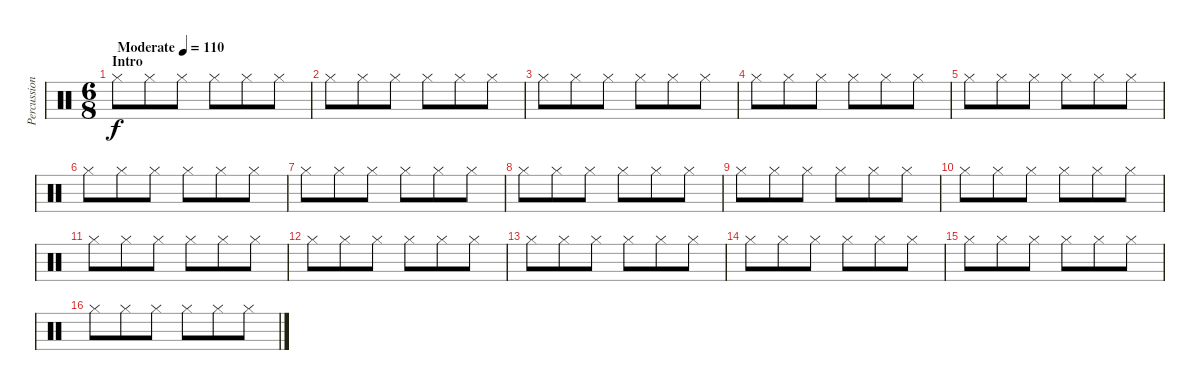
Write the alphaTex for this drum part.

\track ("Percussion" "Percussion") {instrument percussion}
\staff {score}
\articulation defaults
\ts (6 8)
\section ("" "Intro")
\tempo (110 "Moderate")
\clef neutral
\ks c "Hi-Hat (closed)".8{dy f} "Hi-Hat (closed)".8 "Hi-Hat (closed)".8 "Hi-Hat (closed)".8 "Hi-Hat (closed)".8 "Hi-Hat (closed)".8
|
"Hi-Hat (closed)".8 "Hi-Hat (closed)".8 "Hi-Hat (closed)".8 "Hi-Hat (closed)".8 "Hi-Hat (closed)".8 "Hi-Hat (closed)".8 |
"Hi-Hat (closed)".8 "Hi-Hat (closed)".8 "Hi-Hat (closed)".8 "Hi-Hat (closed)".8 "Hi-Hat (closed)".8 "Hi-Hat (closed)".8 |
"Hi-Hat (closed)".8 "Hi-Hat (closed)".8 "Hi-Hat (closed)".8 "Hi-Hat (closed)".8 "Hi-Hat (closed)".8 "Hi-Hat (closed)".8 |
"Hi-Hat (closed)".8 "Hi-Hat (closed)".8 "Hi-Hat (closed)".8 "Hi-Hat (closed)".8 "Hi-Hat (closed)".8 "Hi-Hat (closed)".8 |
"Hi-Hat (closed)".8 "Hi-Hat (closed)".8 "Hi-Hat (closed)".8 "Hi-Hat (closed)".8 "Hi-Hat (closed)".8 "Hi-Hat (closed)".8 |
"Hi-Hat (closed)".8 "Hi-Hat (closed)".8 "Hi-Hat (closed)".8 "Hi-Hat (closed)".8 "Hi-Hat (closed)".8 "Hi-Hat (closed)".8 |
"Hi-Hat (closed)".8 "Hi-Hat (closed)".8 "Hi-Hat (closed)".8 "Hi-Hat (closed)".8 "Hi-Hat (closed)".8 "Hi-Hat (closed)".8 |
"Hi-Hat (closed)".8 "Hi-Hat (closed)".8 "Hi-Hat (closed)".8 "Hi-Hat (closed)".8 "Hi-Hat (closed)".8 "Hi-Hat (closed)".8 |
"Hi-Hat (closed)".8 "Hi-Hat (closed)".8 "Hi-Hat (closed)".8 "Hi-Hat (closed)".8 "Hi-Hat (closed)".8 "Hi-Hat (closed)".8 |
"Hi-Hat (closed)".8 "Hi-Hat (closed)".8 "Hi-Hat (closed)".8 "Hi-Hat (closed)".8 "Hi-Hat (closed)".8 "Hi-Hat (closed)".8 |
"Hi-Hat (closed)".8 "Hi-Hat (closed)".8 "Hi-Hat (closed)".8 "Hi-Hat (closed)".8 "Hi-Hat (closed)".8 "Hi-Hat (closed)".8 |
"Hi-Hat (closed)".8 "Hi-Hat (closed)".8 "Hi-Hat (closed)".8 "Hi-Hat (closed)".8 "Hi-Hat (closed)".8 "Hi-Hat (closed)".8 |
"Hi-Hat (closed)".8 "Hi-Hat (closed)".8 "Hi-Hat (closed)".8 "Hi-Hat (closed)".8 "Hi-Hat (closed)".8 "Hi-Hat (closed)".8 |
"Hi-Hat (closed)".8 "Hi-Hat (closed)".8 "Hi-Hat (closed)".8 "Hi-Hat (closed)".8 "Hi-Hat (closed)".8 "Hi-Hat (closed)".8 |
"Hi-Hat (closed)".8 "Hi-Hat (closed)".8 "Hi-Hat (closed)".8 "Hi-Hat (closed)".8 "Hi-Hat (closed)".8 "Hi-Hat (closed)".8
